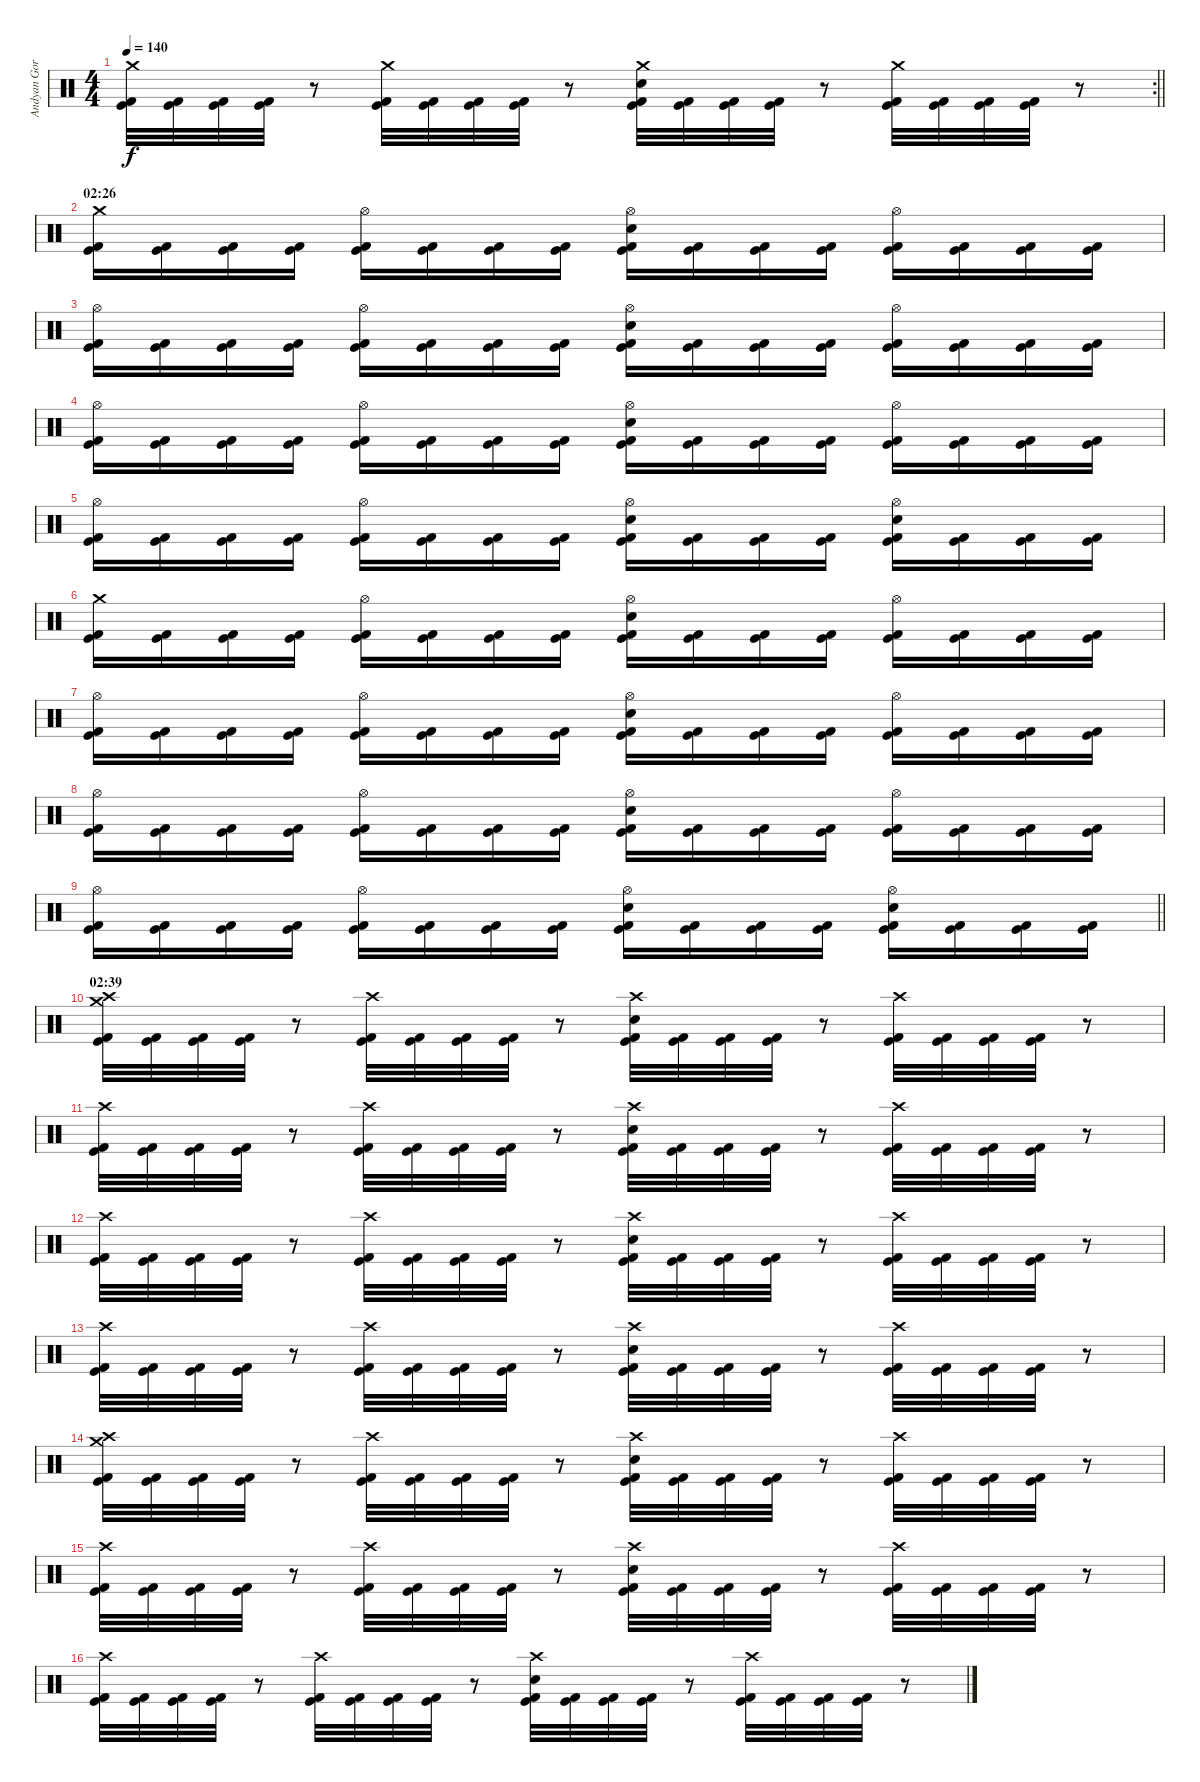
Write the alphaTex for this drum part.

\track ("Andyan Gorust" "Andyan Gor") {instrument percussion}
\staff {score}
\articulation defaults
\rc 2
\ts (4 4)
\tempo 140
\clef neutral
\barLineRight lightlight
\ks c
("Crash medium (hit)" "Kick (hit)" "Kick (hit) 2").32{dy f} ("Kick (hit)" "Kick (hit) 2").32 ("Kick (hit)" "Kick (hit) 2").32 ("Kick (hit)" "Kick (hit) 2").32 r.8 ("Crash medium (hit)" "Kick (hit)" "Kick (hit) 2").32 ("Kick (hit)" "Kick (hit) 2").32 ("Kick (hit)" "Kick (hit) 2").32 ("Kick (hit)" "Kick (hit) 2").32 r.8 ("Crash medium (hit)" "Electric Snare (hit)" "Kick (hit)" "Kick (hit) 2").32 ("Kick (hit)" "Kick (hit) 2").32 ("Kick (hit)" "Kick (hit) 2").32 ("Kick (hit)" "Kick (hit) 2").32 r.8 ("Crash medium (hit)" "Kick (hit)" "Kick (hit) 2").32 ("Kick (hit)" "Kick (hit) 2").32 ("Kick (hit)" "Kick (hit) 2").32 ("Kick (hit)" "Kick (hit) 2").32 r.8 |
\section ("" "02:26")
("Crash medium (hit)" "Kick (hit)" "Kick (hit) 2").16 ("Kick (hit)" "Kick (hit) 2").16 ("Kick (hit)" "Kick (hit) 2").16 ("Kick (hit)" "Kick (hit) 2").16 ("Hi-Hat (open)" "Kick (hit)" "Kick (hit) 2").16 ("Kick (hit)" "Kick (hit) 2").16 ("Kick (hit)" "Kick (hit) 2").16 ("Kick (hit)" "Kick (hit) 2").16 ("Hi-Hat (open)" "Electric Snare (hit)" "Kick (hit)" "Kick (hit) 2").16 ("Kick (hit)" "Kick (hit) 2").16 ("Kick (hit)" "Kick (hit) 2").16 ("Kick (hit)" "Kick (hit) 2").16 ("Hi-Hat (open)" "Kick (hit)" "Kick (hit) 2").16 ("Kick (hit)" "Kick (hit) 2").16 ("Kick (hit)" "Kick (hit) 2").16 ("Kick (hit)" "Kick (hit) 2").16 |
("Hi-Hat (open)" "Kick (hit)" "Kick (hit) 2").16 ("Kick (hit)" "Kick (hit) 2").16 ("Kick (hit)" "Kick (hit) 2").16 ("Kick (hit)" "Kick (hit) 2").16 ("Hi-Hat (open)" "Kick (hit)" "Kick (hit) 2").16 ("Kick (hit)" "Kick (hit) 2").16 ("Kick (hit)" "Kick (hit) 2").16 ("Kick (hit)" "Kick (hit) 2").16 ("Hi-Hat (open)" "Electric Snare (hit)" "Kick (hit)" "Kick (hit) 2").16 ("Kick (hit)" "Kick (hit) 2").16 ("Kick (hit)" "Kick (hit) 2").16 ("Kick (hit)" "Kick (hit) 2").16 ("Hi-Hat (open)" "Kick (hit)" "Kick (hit) 2").16 ("Kick (hit)" "Kick (hit) 2").16 ("Kick (hit)" "Kick (hit) 2").16 ("Kick (hit)" "Kick (hit) 2").16 |
("Hi-Hat (open)" "Kick (hit)" "Kick (hit) 2").16 ("Kick (hit)" "Kick (hit) 2").16 ("Kick (hit)" "Kick (hit) 2").16 ("Kick (hit)" "Kick (hit) 2").16 ("Hi-Hat (open)" "Kick (hit)" "Kick (hit) 2").16 ("Kick (hit)" "Kick (hit) 2").16 ("Kick (hit)" "Kick (hit) 2").16 ("Kick (hit)" "Kick (hit) 2").16 ("Hi-Hat (open)" "Electric Snare (hit)" "Kick (hit)" "Kick (hit) 2").16 ("Kick (hit)" "Kick (hit) 2").16 ("Kick (hit)" "Kick (hit) 2").16 ("Kick (hit)" "Kick (hit) 2").16 ("Hi-Hat (open)" "Kick (hit)" "Kick (hit) 2").16 ("Kick (hit)" "Kick (hit) 2").16 ("Kick (hit)" "Kick (hit) 2").16 ("Kick (hit)" "Kick (hit) 2").16 |
("Hi-Hat (open)" "Kick (hit)" "Kick (hit) 2").16 ("Kick (hit)" "Kick (hit) 2").16 ("Kick (hit)" "Kick (hit) 2").16 ("Kick (hit)" "Kick (hit) 2").16 ("Hi-Hat (open)" "Kick (hit)" "Kick (hit) 2").16 ("Kick (hit)" "Kick (hit) 2").16 ("Kick (hit)" "Kick (hit) 2").16 ("Kick (hit)" "Kick (hit) 2").16 ("Hi-Hat (open)" "Electric Snare (hit)" "Kick (hit)" "Kick (hit) 2").16 ("Kick (hit)" "Kick (hit) 2").16 ("Kick (hit)" "Kick (hit) 2").16 ("Kick (hit)" "Kick (hit) 2").16 ("Hi-Hat (open)" "Electric Snare (hit)" "Kick (hit)" "Kick (hit) 2").16 ("Kick (hit)" "Kick (hit) 2").16 ("Kick (hit)" "Kick (hit) 2").16 ("Kick (hit)" "Kick (hit) 2").16 |
("Crash medium (hit)" "Kick (hit)" "Kick (hit) 2").16 ("Kick (hit)" "Kick (hit) 2").16 ("Kick (hit)" "Kick (hit) 2").16 ("Kick (hit)" "Kick (hit) 2").16 ("Hi-Hat (open)" "Kick (hit)" "Kick (hit) 2").16 ("Kick (hit)" "Kick (hit) 2").16 ("Kick (hit)" "Kick (hit) 2").16 ("Kick (hit)" "Kick (hit) 2").16 ("Hi-Hat (open)" "Electric Snare (hit)" "Kick (hit)" "Kick (hit) 2").16 ("Kick (hit)" "Kick (hit) 2").16 ("Kick (hit)" "Kick (hit) 2").16 ("Kick (hit)" "Kick (hit) 2").16 ("Hi-Hat (open)" "Kick (hit)" "Kick (hit) 2").16 ("Kick (hit)" "Kick (hit) 2").16 ("Kick (hit)" "Kick (hit) 2").16 ("Kick (hit)" "Kick (hit) 2").16 |
("Hi-Hat (open)" "Kick (hit)" "Kick (hit) 2").16 ("Kick (hit)" "Kick (hit) 2").16 ("Kick (hit)" "Kick (hit) 2").16 ("Kick (hit)" "Kick (hit) 2").16 ("Hi-Hat (open)" "Kick (hit)" "Kick (hit) 2").16 ("Kick (hit)" "Kick (hit) 2").16 ("Kick (hit)" "Kick (hit) 2").16 ("Kick (hit)" "Kick (hit) 2").16 ("Hi-Hat (open)" "Electric Snare (hit)" "Kick (hit)" "Kick (hit) 2").16 ("Kick (hit)" "Kick (hit) 2").16 ("Kick (hit)" "Kick (hit) 2").16 ("Kick (hit)" "Kick (hit) 2").16 ("Hi-Hat (open)" "Kick (hit)" "Kick (hit) 2").16 ("Kick (hit)" "Kick (hit) 2").16 ("Kick (hit)" "Kick (hit) 2").16 ("Kick (hit)" "Kick (hit) 2").16 |
("Hi-Hat (open)" "Kick (hit)" "Kick (hit) 2").16 ("Kick (hit)" "Kick (hit) 2").16 ("Kick (hit)" "Kick (hit) 2").16 ("Kick (hit)" "Kick (hit) 2").16 ("Hi-Hat (open)" "Kick (hit)" "Kick (hit) 2").16 ("Kick (hit)" "Kick (hit) 2").16 ("Kick (hit)" "Kick (hit) 2").16 ("Kick (hit)" "Kick (hit) 2").16 ("Hi-Hat (open)" "Electric Snare (hit)" "Kick (hit)" "Kick (hit) 2").16 ("Kick (hit)" "Kick (hit) 2").16 ("Kick (hit)" "Kick (hit) 2").16 ("Kick (hit)" "Kick (hit) 2").16 ("Hi-Hat (open)" "Kick (hit)" "Kick (hit) 2").16 ("Kick (hit)" "Kick (hit) 2").16 ("Kick (hit)" "Kick (hit) 2").16 ("Kick (hit)" "Kick (hit) 2").16 |
\barLineRight lightlight
("Hi-Hat (open)" "Kick (hit)" "Kick (hit) 2").16 ("Kick (hit)" "Kick (hit) 2").16 ("Kick (hit)" "Kick (hit) 2").16 ("Kick (hit)" "Kick (hit) 2").16 ("Hi-Hat (open)" "Kick (hit)" "Kick (hit) 2").16 ("Kick (hit)" "Kick (hit) 2").16 ("Kick (hit)" "Kick (hit) 2").16 ("Kick (hit)" "Kick (hit) 2").16 ("Hi-Hat (open)" "Electric Snare (hit)" "Kick (hit)" "Kick (hit) 2").16 ("Kick (hit)" "Kick (hit) 2").16 ("Kick (hit)" "Kick (hit) 2").16 ("Kick (hit)" "Kick (hit) 2").16 ("Hi-Hat (open)" "Electric Snare (hit)" "Kick (hit)" "Kick (hit) 2").16 ("Kick (hit)" "Kick (hit) 2").16 ("Kick (hit)" "Kick (hit) 2").16 ("Kick (hit)" "Kick (hit) 2").16 |
\section ("" "02:39")
("Crash medium (hit)" "Crash high (hit)" "Kick (hit)" "Kick (hit) 2").32 ("Kick (hit)" "Kick (hit) 2").32 ("Kick (hit)" "Kick (hit) 2").32 ("Kick (hit)" "Kick (hit) 2").32 r.8 ("Crash high (hit)" "Kick (hit)" "Kick (hit) 2").32 ("Kick (hit)" "Kick (hit) 2").32 ("Kick (hit)" "Kick (hit) 2").32 ("Kick (hit)" "Kick (hit) 2").32 r.8 ("Crash high (hit)" "Electric Snare (hit)" "Kick (hit)" "Kick (hit) 2").32 ("Kick (hit)" "Kick (hit) 2").32 ("Kick (hit)" "Kick (hit) 2").32 ("Kick (hit)" "Kick (hit) 2").32 r.8 ("Crash high (hit)" "Kick (hit)" "Kick (hit) 2").32 ("Kick (hit)" "Kick (hit) 2").32 ("Kick (hit)" "Kick (hit) 2").32 ("Kick (hit)" "Kick (hit) 2").32 r.8 |
("Crash high (hit)" "Kick (hit)" "Kick (hit) 2").32 ("Kick (hit)" "Kick (hit) 2").32 ("Kick (hit)" "Kick (hit) 2").32 ("Kick (hit)" "Kick (hit) 2").32 r.8 ("Crash high (hit)" "Kick (hit)" "Kick (hit) 2").32 ("Kick (hit)" "Kick (hit) 2").32 ("Kick (hit)" "Kick (hit) 2").32 ("Kick (hit)" "Kick (hit) 2").32 r.8 ("Crash high (hit)" "Electric Snare (hit)" "Kick (hit)" "Kick (hit) 2").32 ("Kick (hit)" "Kick (hit) 2").32 ("Kick (hit)" "Kick (hit) 2").32 ("Kick (hit)" "Kick (hit) 2").32 r.8 ("Crash high (hit)" "Kick (hit)" "Kick (hit) 2").32 ("Kick (hit)" "Kick (hit) 2").32 ("Kick (hit)" "Kick (hit) 2").32 ("Kick (hit)" "Kick (hit) 2").32 r.8 |
("Crash high (hit)" "Kick (hit)" "Kick (hit) 2").32 ("Kick (hit)" "Kick (hit) 2").32 ("Kick (hit)" "Kick (hit) 2").32 ("Kick (hit)" "Kick (hit) 2").32 r.8 ("Crash high (hit)" "Kick (hit)" "Kick (hit) 2").32 ("Kick (hit)" "Kick (hit) 2").32 ("Kick (hit)" "Kick (hit) 2").32 ("Kick (hit)" "Kick (hit) 2").32 r.8 ("Crash high (hit)" "Electric Snare (hit)" "Kick (hit)" "Kick (hit) 2").32 ("Kick (hit)" "Kick (hit) 2").32 ("Kick (hit)" "Kick (hit) 2").32 ("Kick (hit)" "Kick (hit) 2").32 r.8 ("Crash high (hit)" "Kick (hit)" "Kick (hit) 2").32 ("Kick (hit)" "Kick (hit) 2").32 ("Kick (hit)" "Kick (hit) 2").32 ("Kick (hit)" "Kick (hit) 2").32 r.8 |
("Crash high (hit)" "Kick (hit)" "Kick (hit) 2").32 ("Kick (hit)" "Kick (hit) 2").32 ("Kick (hit)" "Kick (hit) 2").32 ("Kick (hit)" "Kick (hit) 2").32 r.8 ("Crash high (hit)" "Kick (hit)" "Kick (hit) 2").32 ("Kick (hit)" "Kick (hit) 2").32 ("Kick (hit)" "Kick (hit) 2").32 ("Kick (hit)" "Kick (hit) 2").32 r.8 ("Crash high (hit)" "Electric Snare (hit)" "Kick (hit)" "Kick (hit) 2").32 ("Kick (hit)" "Kick (hit) 2").32 ("Kick (hit)" "Kick (hit) 2").32 ("Kick (hit)" "Kick (hit) 2").32 r.8 ("Crash high (hit)" "Kick (hit)" "Kick (hit) 2").32 ("Kick (hit)" "Kick (hit) 2").32 ("Kick (hit)" "Kick (hit) 2").32 ("Kick (hit)" "Kick (hit) 2").32 r.8 |
("Crash medium (hit)" "Crash high (hit)" "Kick (hit)" "Kick (hit) 2").32 ("Kick (hit)" "Kick (hit) 2").32 ("Kick (hit)" "Kick (hit) 2").32 ("Kick (hit)" "Kick (hit) 2").32 r.8 ("Crash high (hit)" "Kick (hit)" "Kick (hit) 2").32 ("Kick (hit)" "Kick (hit) 2").32 ("Kick (hit)" "Kick (hit) 2").32 ("Kick (hit)" "Kick (hit) 2").32 r.8 ("Crash high (hit)" "Electric Snare (hit)" "Kick (hit)" "Kick (hit) 2").32 ("Kick (hit)" "Kick (hit) 2").32 ("Kick (hit)" "Kick (hit) 2").32 ("Kick (hit)" "Kick (hit) 2").32 r.8 ("Crash high (hit)" "Kick (hit)" "Kick (hit) 2").32 ("Kick (hit)" "Kick (hit) 2").32 ("Kick (hit)" "Kick (hit) 2").32 ("Kick (hit)" "Kick (hit) 2").32 r.8 |
("Crash high (hit)" "Kick (hit)" "Kick (hit) 2").32 ("Kick (hit)" "Kick (hit) 2").32 ("Kick (hit)" "Kick (hit) 2").32 ("Kick (hit)" "Kick (hit) 2").32 r.8 ("Crash high (hit)" "Kick (hit)" "Kick (hit) 2").32 ("Kick (hit)" "Kick (hit) 2").32 ("Kick (hit)" "Kick (hit) 2").32 ("Kick (hit)" "Kick (hit) 2").32 r.8 ("Crash high (hit)" "Electric Snare (hit)" "Kick (hit)" "Kick (hit) 2").32 ("Kick (hit)" "Kick (hit) 2").32 ("Kick (hit)" "Kick (hit) 2").32 ("Kick (hit)" "Kick (hit) 2").32 r.8 ("Crash high (hit)" "Kick (hit)" "Kick (hit) 2").32 ("Kick (hit)" "Kick (hit) 2").32 ("Kick (hit)" "Kick (hit) 2").32 ("Kick (hit)" "Kick (hit) 2").32 r.8 |
("Crash high (hit)" "Kick (hit)" "Kick (hit) 2").32 ("Kick (hit)" "Kick (hit) 2").32 ("Kick (hit)" "Kick (hit) 2").32 ("Kick (hit)" "Kick (hit) 2").32 r.8 ("Crash high (hit)" "Kick (hit)" "Kick (hit) 2").32 ("Kick (hit)" "Kick (hit) 2").32 ("Kick (hit)" "Kick (hit) 2").32 ("Kick (hit)" "Kick (hit) 2").32 r.8 ("Crash high (hit)" "Electric Snare (hit)" "Kick (hit)" "Kick (hit) 2").32 ("Kick (hit)" "Kick (hit) 2").32 ("Kick (hit)" "Kick (hit) 2").32 ("Kick (hit)" "Kick (hit) 2").32 r.8 ("Crash high (hit)" "Kick (hit)" "Kick (hit) 2").32 ("Kick (hit)" "Kick (hit) 2").32 ("Kick (hit)" "Kick (hit) 2").32 ("Kick (hit)" "Kick (hit) 2").32 r.8
